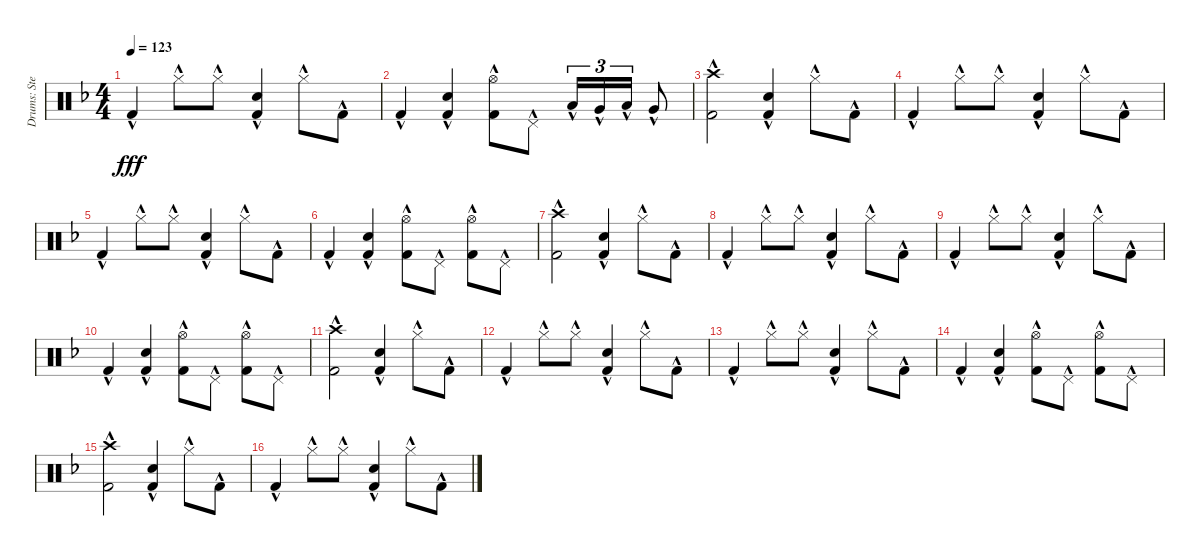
\track ("Drums: Steve" "Drums: Ste") {instrument percussion}
\staff {score}
\articulation defaults
\ts (4 4)
\tempo 123
\clef neutral
\ks f "Kick (hit) 2"{hac}.4{dy fff} "Hi-Hat (closed)"{hac}.8 "Hi-Hat (closed)"{hac}.8
("Electric Snare (hit)"{hac} "Kick (hit) 2"{hac}).4 "Hi-Hat (closed)"{hac}.8 "Kick (hit) 2"{hac}.8 |
"Kick (hit) 2"{hac}.4 ("Electric Snare (hit)"{hac} "Kick (hit) 2"{hac}).4 ("Hi-Hat (open)"{hac} "Kick (hit) 2"{hac}).8 "Pedal Hi-Hat (hit)"{hac}.8 "Low Tom (hit)"{hac}.16{tu (3 2)} "Very Low Tom (hit)"{hac}.16{tu (3 2)} "Low Tom (hit)"{hac}.16{tu (3 2)} "Very Low Tom (hit)"{hac}.8 |
("Crash high (hit)"{hac} "Kick (hit) 2"{hac}).2 ("Electric Snare (hit)"{hac} "Kick (hit) 2"{hac}).4 "Hi-Hat (closed)"{hac}.8 "Kick (hit) 2"{hac}.8 |
"Kick (hit) 2"{hac}.4 "Hi-Hat (closed)"{hac}.8 "Hi-Hat (closed)"{hac}.8 ("Electric Snare (hit)"{hac} "Kick (hit) 2"{hac}).4 "Hi-Hat (closed)"{hac}.8 "Kick (hit) 2"{hac}.8 |
"Kick (hit) 2"{hac}.4 "Hi-Hat (closed)"{hac}.8 "Hi-Hat (closed)"{hac}.8 ("Electric Snare (hit)"{hac} "Kick (hit) 2"{hac}).4 "Hi-Hat (closed)"{hac}.8 "Kick (hit) 2"{hac}.8 |
"Kick (hit) 2"{hac}.4 ("Electric Snare (hit)"{hac} "Kick (hit) 2"{hac}).4 ("Hi-Hat (open)"{hac} "Kick (hit) 2"{hac}).8 "Pedal Hi-Hat (hit)"{hac}.8 ("Hi-Hat (open)"{hac} "Kick (hit) 2"{hac}).8 "Pedal Hi-Hat (hit)"{hac}.8 |
("Crash high (hit)"{hac} "Kick (hit) 2"{hac}).2 ("Electric Snare (hit)"{hac} "Kick (hit) 2"{hac}).4 "Hi-Hat (closed)"{hac}.8 "Kick (hit) 2"{hac}.8 |
"Kick (hit) 2"{hac}.4 "Hi-Hat (closed)"{hac}.8 "Hi-Hat (closed)"{hac}.8 ("Electric Snare (hit)"{hac} "Kick (hit) 2"{hac}).4 "Hi-Hat (closed)"{hac}.8 "Kick (hit) 2"{hac}.8 |
"Kick (hit) 2"{hac}.4 "Hi-Hat (closed)"{hac}.8 "Hi-Hat (closed)"{hac}.8 ("Electric Snare (hit)"{hac} "Kick (hit) 2"{hac}).4 "Hi-Hat (closed)"{hac}.8 "Kick (hit) 2"{hac}.8 |
"Kick (hit) 2"{hac}.4 ("Electric Snare (hit)"{hac} "Kick (hit) 2"{hac}).4 ("Hi-Hat (open)"{hac} "Kick (hit) 2"{hac}).8 "Pedal Hi-Hat (hit)"{hac}.8 ("Hi-Hat (open)"{hac} "Kick (hit) 2"{hac}).8 "Pedal Hi-Hat (hit)"{hac}.8 |
("Crash high (hit)"{hac} "Kick (hit) 2"{hac}).2 ("Electric Snare (hit)"{hac} "Kick (hit) 2"{hac}).4 "Hi-Hat (closed)"{hac}.8 "Kick (hit) 2"{hac}.8 |
"Kick (hit) 2"{hac}.4 "Hi-Hat (closed)"{hac}.8 "Hi-Hat (closed)"{hac}.8 ("Electric Snare (hit)"{hac} "Kick (hit) 2"{hac}).4 "Hi-Hat (closed)"{hac}.8 "Kick (hit) 2"{hac}.8 |
"Kick (hit) 2"{hac}.4 "Hi-Hat (closed)"{hac}.8 "Hi-Hat (closed)"{hac}.8 ("Electric Snare (hit)"{hac} "Kick (hit) 2"{hac}).4 "Hi-Hat (closed)"{hac}.8 "Kick (hit) 2"{hac}.8 |
"Kick (hit) 2"{hac}.4 ("Electric Snare (hit)"{hac} "Kick (hit) 2"{hac}).4 ("Hi-Hat (open)"{hac} "Kick (hit) 2"{hac}).8 "Pedal Hi-Hat (hit)"{hac}.8 ("Hi-Hat (open)"{hac} "Kick (hit) 2"{hac}).8 "Pedal Hi-Hat (hit)"{hac}.8 |
("Crash high (hit)"{hac} "Kick (hit) 2"{hac}).2 ("Electric Snare (hit)"{hac} "Kick (hit) 2"{hac}).4 "Hi-Hat (closed)"{hac}.8 "Kick (hit) 2"{hac}.8 |
"Kick (hit) 2"{hac}.4 "Hi-Hat (closed)"{hac}.8 "Hi-Hat (closed)"{hac}.8 ("Electric Snare (hit)"{hac} "Kick (hit) 2"{hac}).4 "Hi-Hat (closed)"{hac}.8 "Kick (hit) 2"{hac}.8
